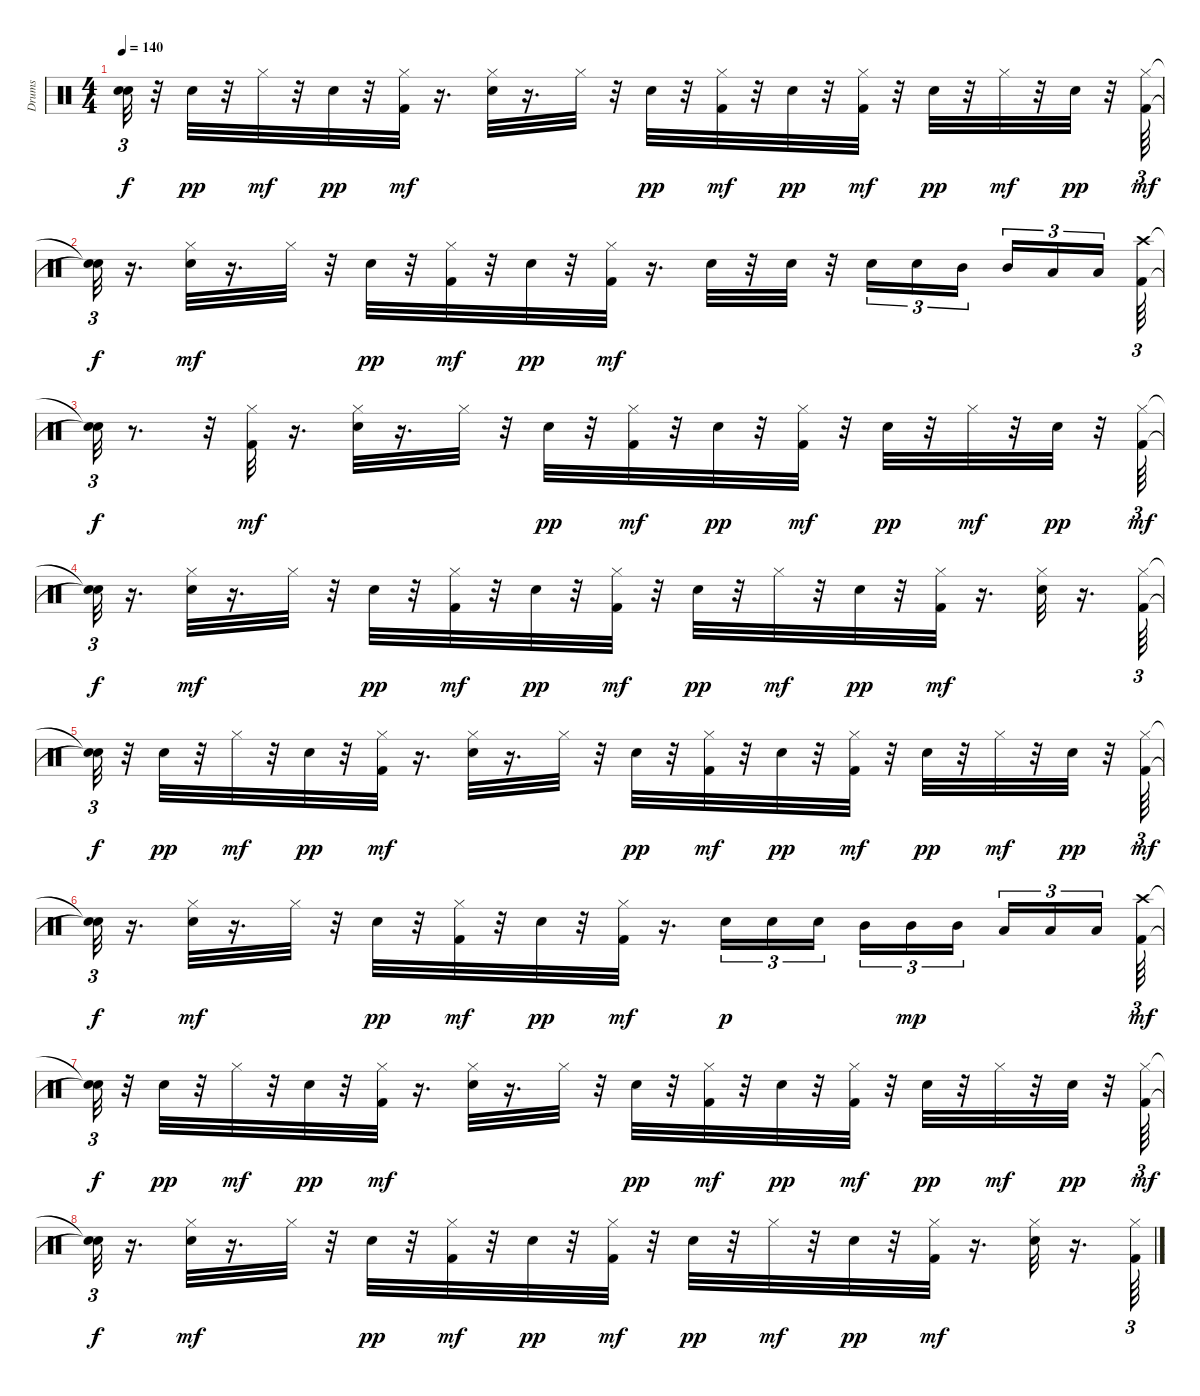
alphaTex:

\track ("Drums" "Drums") {instrument percussion}
\staff {score}
\articulation defaults
\ts (4 4)
\tempo 140
\clef neutral
\ks c
("Snare (hit)"{t} "Snare (hit)"{t}).32{tu (3 2) dy f} r.32 "Snare (hit) 2".32{dy pp} r.32 "Hi-Hat (closed)".32{dy mf} r.32 "Snare (hit) 2".32{dy pp} r.32 ("Hi-Hat (closed)" "Kick (hit) 2").32{dy mf} r.16{d} ("Hi-Hat (closed)" "Snare (hit) 2").32 r.16{d} "Hi-Hat (closed)".32 r.32 "Snare (hit) 2".32{dy pp} r.32 ("Hi-Hat (closed)" "Kick (hit) 2").32{dy mf} r.32 "Snare (hit) 2".32{dy pp} r.32 ("Kick (hit) 2" "Hi-Hat (closed)").32{dy mf} r.32 "Snare (hit) 2".32{dy pp} r.32 "Hi-Hat (closed)".32{dy mf} r.32 "Snare (hit) 2".32{dy pp} r.32 ("Hi-Hat (closed)" "Kick (hit) 2").64{tu (3 2) dy mf} |
("Snare (hit)"{t} "Snare (hit)"{t}).32{tu (3 2) dy f} r.16{d} ("Hi-Hat (closed)" "Snare (hit) 2").32{dy mf} r.16{d} "Hi-Hat (closed)".32 r.32 "Snare (hit) 2".32{dy pp} r.32 ("Hi-Hat (closed)" "Kick (hit) 2").32{dy mf} r.32 "Snare (hit) 2".32{dy pp} r.32 ("Hi-Hat (closed)" "Kick (hit) 2").32{dy mf} r.16{d} "Snare (hit) 2".32 r.32 "Snare (hit) 2".32 r.32 "Snare (hit) 2".16{tu (3 2)} "Snare (hit) 2".16{tu (3 2)} "Mid Tom (hit)".16{tu (3 2) beam splitsecondary} "Mid Tom (hit)".16{tu (3 2)} "Low Tom (hit)".16{tu (3 2)} "Low Tom (hit)".16{tu (3 2) beam splitsecondary} ("Crash high (hit)" "Kick (hit) 2").64{tu (3 2)} |
("Snare (hit)"{t} "Snare (hit)"{t}).32{tu (3 2) dy f} r.8{d} r.32 ("Hi-Hat (closed)" "Kick (hit) 2").32{dy mf} r.16{d} ("Hi-Hat (closed)" "Snare (hit) 2").32 r.16{d} "Hi-Hat (closed)".32 r.32 "Snare (hit) 2".32{dy pp} r.32 ("Hi-Hat (closed)" "Kick (hit) 2").32{dy mf} r.32 "Snare (hit) 2".32{dy pp} r.32 ("Hi-Hat (closed)" "Kick (hit) 2").32{dy mf} r.32 "Snare (hit) 2".32{dy pp} r.32 "Hi-Hat (closed)".32{dy mf} r.32 "Snare (hit) 2".32{dy pp} r.32 ("Hi-Hat (closed)" "Kick (hit) 2").64{tu (3 2) dy mf} |
("Snare (hit)"{t} "Snare (hit)"{t}).32{tu (3 2) dy f} r.16{d} ("Hi-Hat (closed)" "Snare (hit) 2").32{dy mf} r.16{d} "Hi-Hat (closed)".32 r.32 "Snare (hit) 2".32{dy pp} r.32 ("Hi-Hat (closed)" "Kick (hit) 2").32{dy mf} r.32 "Snare (hit) 2".32{dy pp} r.32 ("Hi-Hat (closed)" "Kick (hit) 2").32{dy mf} r.32 "Snare (hit) 2".32{dy pp} r.32 "Hi-Hat (closed)".32{dy mf} r.32 "Snare (hit) 2".32{dy pp} r.32 ("Hi-Hat (closed)" "Kick (hit) 2").32{dy mf} r.16{d} ("Hi-Hat (closed)" "Snare (hit) 2").32 r.16{d} ("Hi-Hat (closed)" "Kick (hit) 2").64{tu (3 2)} |
("Snare (hit)"{t} "Snare (hit)"{t}).32{tu (3 2) dy f} r.32 "Snare (hit) 2".32{dy pp} r.32 "Hi-Hat (closed)".32{dy mf} r.32 "Snare (hit) 2".32{dy pp} r.32 ("Hi-Hat (closed)" "Kick (hit) 2").32{dy mf} r.16{d} ("Hi-Hat (closed)" "Snare (hit) 2").32 r.16{d} "Hi-Hat (closed)".32 r.32 "Snare (hit) 2".32{dy pp} r.32 ("Hi-Hat (closed)" "Kick (hit) 2").32{dy mf} r.32 "Snare (hit) 2".32{dy pp} r.32 ("Hi-Hat (closed)" "Kick (hit) 2").32{dy mf} r.32 "Snare (hit) 2".32{dy pp} r.32 "Hi-Hat (closed)".32{dy mf} r.32 "Snare (hit) 2".32{dy pp} r.32 ("Hi-Hat (closed)" "Kick (hit) 2").64{tu (3 2) dy mf} |
("Snare (hit)"{t} "Snare (hit)"{t}).32{tu (3 2) dy f} r.16{d} ("Hi-Hat (closed)" "Snare (hit) 2").32{dy mf} r.16{d} "Hi-Hat (closed)".32 r.32 "Snare (hit) 2".32{dy pp} r.32 ("Hi-Hat (closed)" "Kick (hit) 2").32{dy mf} r.32 "Snare (hit) 2".32{dy pp} r.32 ("Hi-Hat (closed)" "Kick (hit) 2").32{dy mf} r.16{d} "Snare (hit) 2".16{tu (3 2) dy p} "Snare (hit) 2".16{tu (3 2)} "Snare (hit) 2".16{tu (3 2) beam splitsecondary} "Mid Tom (hit)".16{tu (3 2)} "Mid Tom (hit)".16{tu (3 2) dy mp} "Mid Tom (hit)".16{tu (3 2) beam splitsecondary} "Low Tom (hit)".16{tu (3 2)} "Low Tom (hit)".16{tu (3 2)} "Low Tom (hit)".16{tu (3 2) beam splitsecondary} ("Crash high (hit)" "Kick (hit) 2").64{tu (3 2) dy mf} |
("Snare (hit)"{t} "Snare (hit)"{t}).32{tu (3 2) dy f} r.32 "Snare (hit) 2".32{dy pp} r.32 "Hi-Hat (closed)".32{dy mf} r.32 "Snare (hit) 2".32{dy pp} r.32 ("Kick (hit) 2" "Hi-Hat (closed)").32{dy mf} r.16{d} ("Hi-Hat (closed)" "Snare (hit) 2").32 r.16{d} "Hi-Hat (closed)".32 r.32 "Snare (hit) 2".32{dy pp} r.32 ("Hi-Hat (closed)" "Kick (hit) 2").32{dy mf} r.32 "Snare (hit) 2".32{dy pp} r.32 ("Hi-Hat (closed)" "Kick (hit) 2").32{dy mf} r.32 "Snare (hit) 2".32{dy pp} r.32 "Hi-Hat (closed)".32{dy mf} r.32 "Snare (hit) 2".32{dy pp} r.32 ("Hi-Hat (closed)" "Kick (hit) 2").64{tu (3 2) dy mf} |
("Snare (hit)"{t} "Snare (hit)"{t}).32{tu (3 2) dy f} r.16{d} ("Hi-Hat (closed)" "Snare (hit) 2").32{dy mf} r.16{d} "Hi-Hat (closed)".32 r.32 "Snare (hit) 2".32{dy pp} r.32 ("Kick (hit) 2" "Hi-Hat (closed)").32{dy mf} r.32 "Snare (hit) 2".32{dy pp} r.32 ("Hi-Hat (closed)" "Kick (hit) 2").32{dy mf} r.32 "Snare (hit) 2".32{dy pp} r.32 "Hi-Hat (closed)".32{dy mf} r.32 "Snare (hit) 2".32{dy pp} r.32 ("Hi-Hat (closed)" "Kick (hit) 2").32{dy mf} r.16{d} ("Hi-Hat (closed)" "Snare (hit) 2").32 r.16{d} ("Hi-Hat (closed)" "Kick (hit) 2").64{tu (3 2)}
